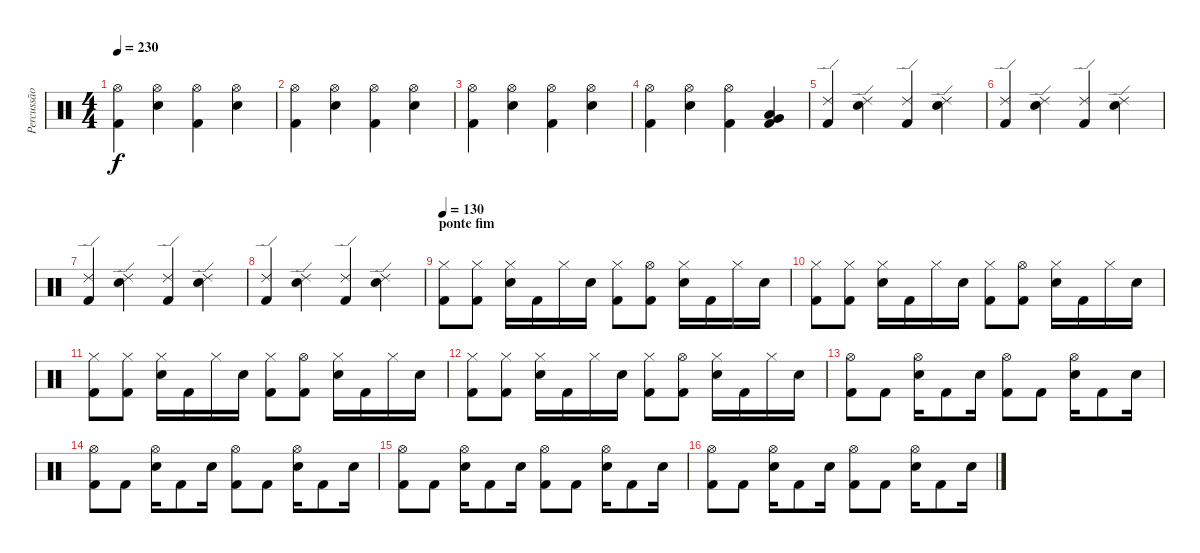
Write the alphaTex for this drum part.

\track ("Percussão" "Percussão") {instrument percussion}
\staff {score}
\articulation defaults
\ts (4 4)
\tempo 230
\clef neutral
\ks c
("Hi-Hat (open)" "Kick (hit) 2").4{dy f} ("Hi-Hat (open)" "Snare (hit) 2").4 ("Hi-Hat (open)" "Kick (hit) 2").4 ("Hi-Hat (open)" "Snare (hit) 2").4 |
("Hi-Hat (open)" "Kick (hit) 2").4 ("Hi-Hat (open)" "Snare (hit) 2").4 ("Hi-Hat (open)" "Kick (hit) 2").4 ("Hi-Hat (open)" "Snare (hit) 2").4 |
("Hi-Hat (open)" "Kick (hit) 2").4 ("Hi-Hat (open)" "Snare (hit) 2").4 ("Hi-Hat (open)" "Kick (hit) 2").4 ("Hi-Hat (open)" "Snare (hit) 2").4 |
("Hi-Hat (open)" "Kick (hit) 2").4 ("Hi-Hat (open)" "Snare (hit) 2").4 ("Hi-Hat (open)" "Kick (hit) 2").4 ("Low Tom (hit)" "Very Low Tom (hit)" "Kick (hit) 2").4 |
("Ride (edge) 2" "Kick (hit) 2").4 ("Ride (edge) 2" "Snare (hit) 2").4 ("Ride (edge) 2" "Kick (hit) 2").4 ("Ride (edge) 2" "Snare (hit) 2").4 |
("Ride (edge) 2" "Kick (hit) 2").4 ("Ride (edge) 2" "Snare (hit) 2").4 ("Ride (edge) 2" "Kick (hit) 2").4 ("Ride (edge) 2" "Snare (hit) 2").4 |
("Ride (edge) 2" "Kick (hit) 2").4 ("Ride (edge) 2" "Snare (hit) 2").4 ("Ride (edge) 2" "Kick (hit) 2").4 ("Ride (edge) 2" "Snare (hit) 2").4 |
("Ride (edge) 2" "Kick (hit) 2").4 ("Ride (edge) 2" "Snare (hit) 2").4 ("Ride (edge) 2" "Kick (hit) 2").4 ("Ride (edge) 2" "Snare (hit) 2").4 |
\section ("" "ponte fim")
\tempo 130
("Hi-Hat (closed)" "Kick (hit) 2").8 ("Hi-Hat (closed)" "Kick (hit) 2").8 ("Hi-Hat (closed)" "Snare (hit) 2").16 "Kick (hit) 2".16 "Hi-Hat (closed)".16 "Snare (hit) 2".16 ("Hi-Hat (closed)" "Kick (hit) 2").8 ("Hi-Hat (open)" "Kick (hit) 2").8 ("Hi-Hat (closed)" "Snare (hit) 2").16 "Kick (hit) 2".16 "Hi-Hat (closed)".16 "Snare (hit) 2".16 |
("Hi-Hat (closed)" "Kick (hit) 2").8 ("Hi-Hat (closed)" "Kick (hit) 2").8 ("Hi-Hat (closed)" "Snare (hit) 2").16 "Kick (hit) 2".16 "Hi-Hat (closed)".16 "Snare (hit) 2".16 ("Hi-Hat (closed)" "Kick (hit) 2").8 ("Hi-Hat (open)" "Kick (hit) 2").8 ("Hi-Hat (closed)" "Snare (hit) 2").16 "Kick (hit) 2".16 "Hi-Hat (closed)".16 "Snare (hit) 2".16 |
("Hi-Hat (closed)" "Kick (hit) 2").8 ("Hi-Hat (closed)" "Kick (hit) 2").8 ("Hi-Hat (closed)" "Snare (hit) 2").16 "Kick (hit) 2".16 "Hi-Hat (closed)".16 "Snare (hit) 2".16 ("Hi-Hat (closed)" "Kick (hit) 2").8 ("Hi-Hat (open)" "Kick (hit) 2").8 ("Hi-Hat (closed)" "Snare (hit) 2").16 "Kick (hit) 2".16 "Hi-Hat (closed)".16 "Snare (hit) 2".16 |
("Hi-Hat (closed)" "Kick (hit) 2").8 ("Hi-Hat (closed)" "Kick (hit) 2").8 ("Hi-Hat (closed)" "Snare (hit) 2").16 "Kick (hit) 2".16 "Hi-Hat (closed)".16 "Snare (hit) 2".16 ("Hi-Hat (closed)" "Kick (hit) 2").8 ("Hi-Hat (open)" "Kick (hit) 2").8 ("Hi-Hat (closed)" "Snare (hit) 2").16 "Kick (hit) 2".16 "Hi-Hat (closed)".16 "Snare (hit) 2".16 |
("Hi-Hat (open)" "Kick (hit) 2").8 "Kick (hit) 2".8 ("Hi-Hat (open)" "Snare (hit) 2").16 "Kick (hit) 2".8 "Snare (hit) 2".16 ("Hi-Hat (open)" "Kick (hit) 2").8 "Kick (hit) 2".8 ("Hi-Hat (open)" "Snare (hit) 2").16 "Kick (hit) 2".8 "Snare (hit) 2".16 |
("Hi-Hat (open)" "Kick (hit) 2").8 "Kick (hit) 2".8 ("Hi-Hat (open)" "Snare (hit) 2").16 "Kick (hit) 2".8 "Snare (hit) 2".16 ("Hi-Hat (open)" "Kick (hit) 2").8 "Kick (hit) 2".8 ("Hi-Hat (open)" "Snare (hit) 2").16 "Kick (hit) 2".8 "Snare (hit) 2".16 |
("Hi-Hat (open)" "Kick (hit) 2").8 "Kick (hit) 2".8 ("Hi-Hat (open)" "Snare (hit) 2").16 "Kick (hit) 2".8 "Snare (hit) 2".16 ("Hi-Hat (open)" "Kick (hit) 2").8 "Kick (hit) 2".8 ("Hi-Hat (open)" "Snare (hit) 2").16 "Kick (hit) 2".8 "Snare (hit) 2".16 |
("Hi-Hat (open)" "Kick (hit) 2").8 "Kick (hit) 2".8 ("Hi-Hat (open)" "Snare (hit) 2").16 "Kick (hit) 2".8 "Snare (hit) 2".16 ("Hi-Hat (open)" "Kick (hit) 2").8 "Kick (hit) 2".8 ("Hi-Hat (open)" "Snare (hit) 2").16 "Kick (hit) 2".8 "Snare (hit) 2".16
